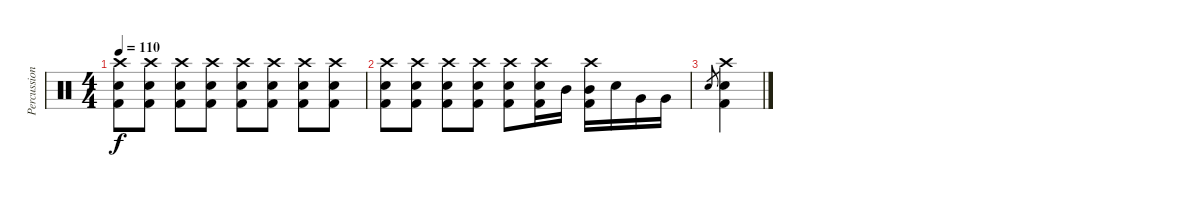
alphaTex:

\track ("Percussion" "Percussion") {instrument percussion}
\staff {score}
\articulation defaults
\ts (4 4)
\tempo 110
\clef neutral
\ks c
("Crash high (hit)" "Electric Snare (hit)" "Kick (hit) 2").8{dy f} ("Crash high (hit)" "Electric Snare (hit)" "Kick (hit) 2").8 ("Crash high (hit)" "Electric Snare (hit)" "Kick (hit) 2").8 ("Crash high (hit)" "Electric Snare (hit)" "Kick (hit) 2").8 ("Crash high (hit)" "Electric Snare (hit)" "Kick (hit) 2").8 ("Crash high (hit)" "Electric Snare (hit)" "Kick (hit) 2").8 ("Crash high (hit)" "Electric Snare (hit)" "Kick (hit) 2").8 ("Crash high (hit)" "Electric Snare (hit)" "Kick (hit) 2").8 |
("Crash high (hit)" "Electric Snare (hit)" "Kick (hit) 2").8 ("Crash high (hit)" "Electric Snare (hit)" "Kick (hit) 2").8 ("Crash high (hit)" "Electric Snare (hit)" "Kick (hit) 2").8 ("Crash high (hit)" "Electric Snare (hit)" "Kick (hit) 2").8 ("Crash high (hit)" "Electric Snare (hit)" "Kick (hit) 2").8 ("Crash high (hit)" "Electric Snare (hit)" "Kick (hit) 2").16 "Mid Tom (hit)".16 ("Crash high (hit)" "Mid Tom (hit)" "Kick (hit) 2").16 "Electric Snare (hit)".16 "Very Low Tom (hit)".16 "Very Low Tom (hit)".16 |
"Electric Snare (hit)".8{gr} ("Crash high (hit)" "Electric Snare (hit)" "Kick (hit) 2").4
